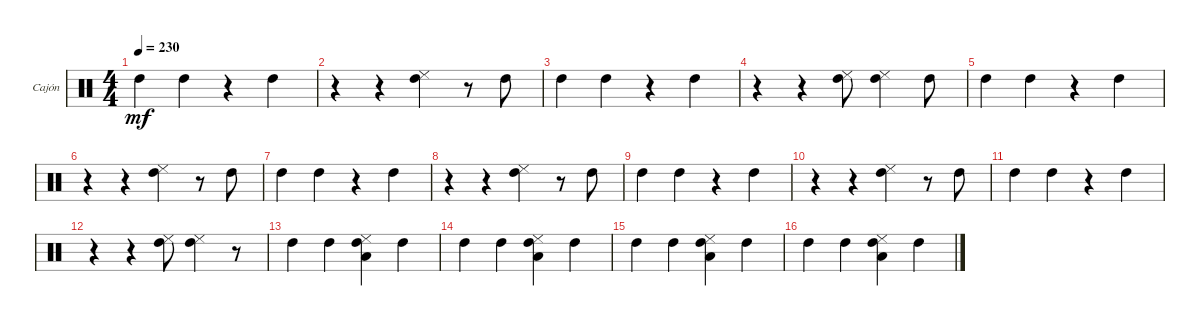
\defaultSystemsLayout 4
\bracketExtendMode groupsimilarinstruments
\firstSystemTrackNameOrientation horizontal
\otherSystemsTrackNameOrientation horizontal
\track ("Cajón (Ira)" "Cajón") {instrument percussion}
\staff {score}
\articulation defaults
\ts (4 4)
\tempo 230
\clef neutral
\scale
0.333333
\ks c "High Tom (hit)".4{dy mf} "High Tom (hit)".4
r.4 "High Tom (hit)".4 |
\scale
0.333333 r.4 r.4 ("Cowbell low (tip)" "High Tom (hit)").4 r.8 "High Tom (hit)".8 |
\scale
0.333333 "High Tom (hit)".4 "High Tom (hit)".4 r.4 "High Tom (hit)".4 |
\scale
0.333333 r.4 r.4 ("High Tom (hit)" "Cowbell low (tip)").8 ("High Tom (hit)" "Cowbell low (tip)").4 "High Tom (hit)".8 |
\scale
0.333333 "High Tom (hit)".4 "High Tom (hit)".4 r.4 "High Tom (hit)".4 |
\scale
0.333333 r.4 r.4 ("Cowbell low (tip)" "High Tom (hit)").4 r.8 "High Tom (hit)".8 |
\scale
0.333333 "High Tom (hit)".4 "High Tom (hit)".4 r.4 "High Tom (hit)".4 |
\scale
0.333333 r.4 r.4 ("High Tom (hit)" "Cowbell low (tip)").4 r.8 "High Tom (hit)".8 |
\scale
0.333333 "High Tom (hit)".4 "High Tom (hit)".4 r.4 "High Tom (hit)".4 |
\scale
0.333333 r.4 r.4 ("Cowbell low (tip)" "High Tom (hit)").4 r.8 "High Tom (hit)".8 |
\scale
0.333333 "High Tom (hit)".4 "High Tom (hit)".4 r.4 "High Tom (hit)".4 |
\scale
0.333333 r.4 r.4 ("High Tom (hit)" "Cowbell low (tip)").8 ("High Tom (hit)" "Cowbell low (tip)").4 r.8 |
\scale
0.333333 "High Tom (hit)".4 "High Tom (hit)".4 ("Cowbell low (tip)" "High Tom (hit)" "Low Tom (hit)").4 "High Tom (hit)".4 |
\scale
0.333333 "High Tom (hit)".4 "High Tom (hit)".4 ("Cowbell low (tip)" "High Tom (hit)" "Low Tom (hit)").4 "High Tom (hit)".4 |
\scale
0.333333 "High Tom (hit)".4 "High Tom (hit)".4 ("High Tom (hit)" "Cowbell low (tip)" "Low Tom (hit)").4 "High Tom (hit)".4 |
\scale
0.333333 "High Tom (hit)".4 "High Tom (hit)".4 ("High Tom (hit)" "Cowbell low (tip)" "Low Tom (hit)").4 "High Tom (hit)".4
